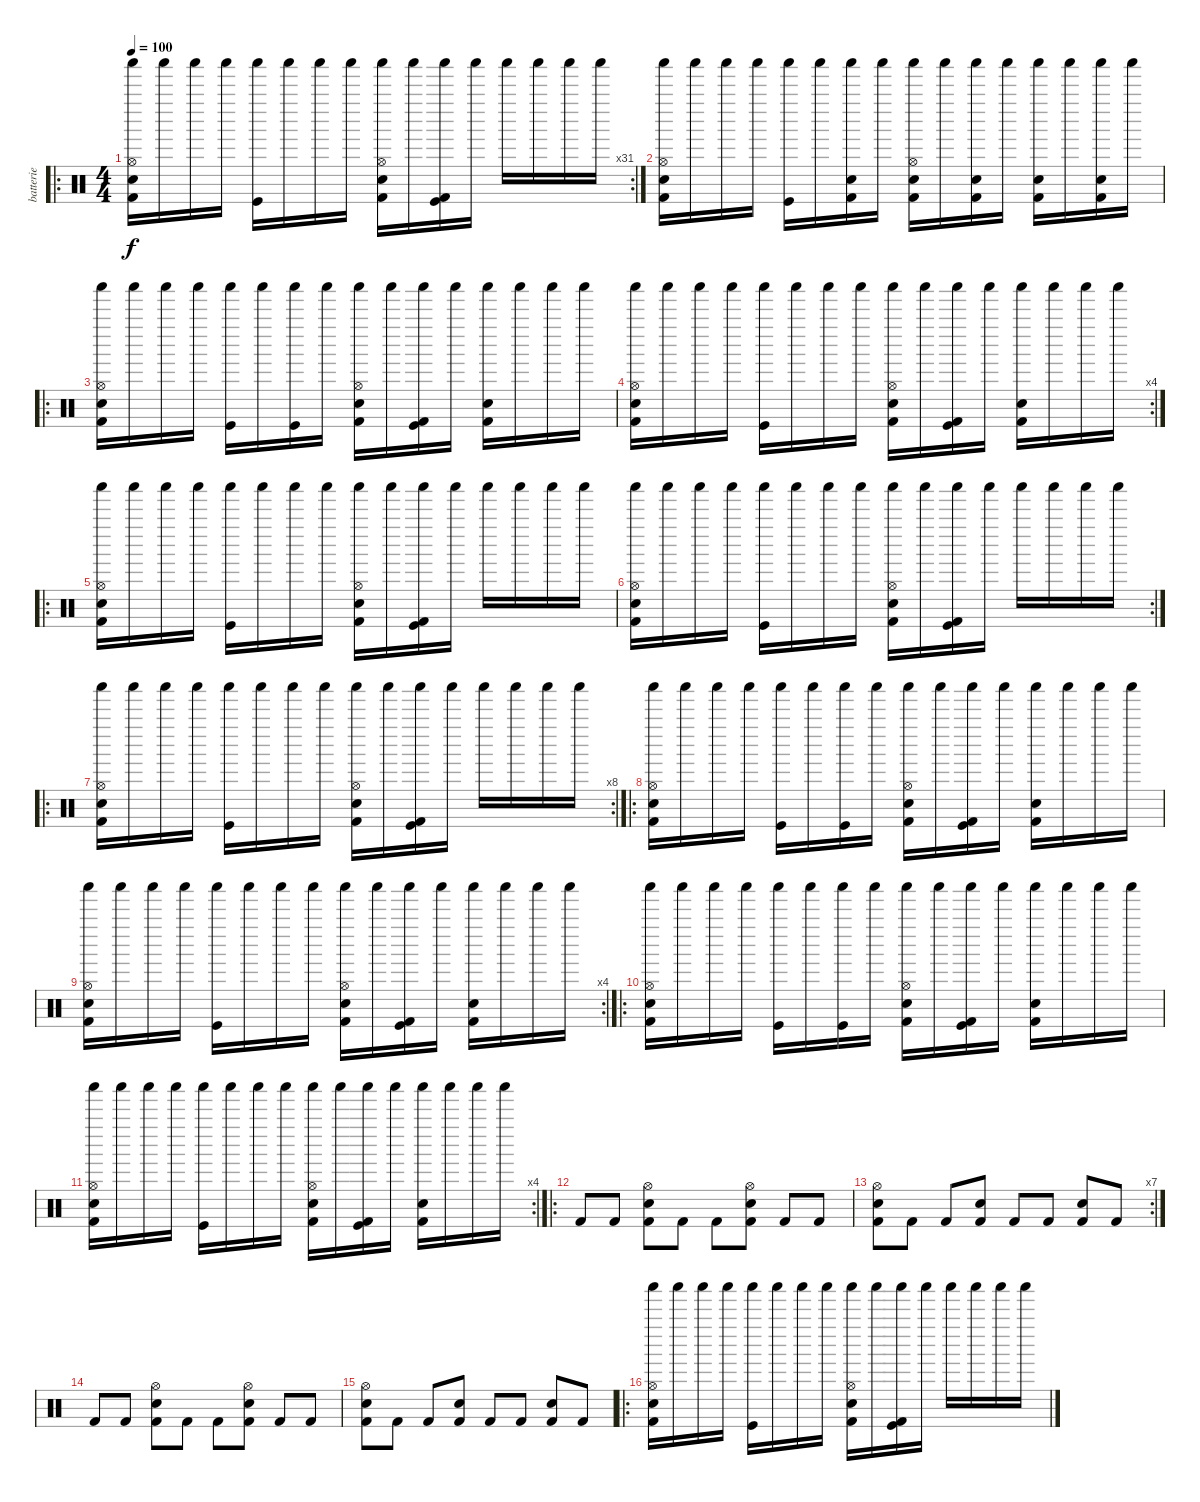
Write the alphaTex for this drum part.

\track ("batterie" "batterie") {instrument percussion}
\staff {score}
\articulation defaults
\ro
\rc 31
\ts (4 4)
\tempo 100
\clef neutral
\ks c
("Shaker (hit)" "Kick (hit) 2" "Electric Snare (hit)" "Hi-Hat (open)").16{dy f} "Shaker (hit)".16 "Shaker (hit)".16 "Shaker (hit)".16 ("Shaker (hit)" "Kick (hit)").16 "Shaker (hit)".16 "Shaker (hit)".16 "Shaker (hit)".16 ("Shaker (hit)" "Kick (hit) 2" "Electric Snare (hit)" "Hi-Hat (open)").16 "Shaker (hit)".16 ("Shaker (hit)" "Kick (hit)" "Kick (hit) 2").16 "Shaker (hit)".16 "Shaker (hit)".16 "Shaker (hit)".16 "Shaker (hit)".16 "Shaker (hit)".16 |
("Shaker (hit)" "Kick (hit) 2" "Electric Snare (hit)" "Hi-Hat (open)").16 "Shaker (hit)".16 "Shaker (hit)".16 "Shaker (hit)".16 ("Shaker (hit)" "Kick (hit)").16 "Shaker (hit)".16 ("Shaker (hit)" "Electric Snare (hit)" "Kick (hit) 2").16 "Shaker (hit)".16 ("Shaker (hit)" "Kick (hit) 2" "Electric Snare (hit)" "Hi-Hat (open)").16 "Shaker (hit)".16 ("Shaker (hit)" "Electric Snare (hit)" "Kick (hit) 2").16 "Shaker (hit)".16 ("Shaker (hit)" "Electric Snare (hit)" "Kick (hit) 2").16 "Shaker (hit)".16 ("Shaker (hit)" "Electric Snare (hit)" "Kick (hit) 2").16 "Shaker (hit)".16 |
\ro
("Shaker (hit)" "Kick (hit) 2" "Electric Snare (hit)" "Hi-Hat (open)").16 "Shaker (hit)".16 "Shaker (hit)".16 "Shaker (hit)".16 ("Shaker (hit)" "Kick (hit)").16 "Shaker (hit)".16 ("Shaker (hit)" "Kick (hit)").16 "Shaker (hit)".16 ("Shaker (hit)" "Kick (hit) 2" "Electric Snare (hit)" "Hi-Hat (open)").16 "Shaker (hit)".16 ("Shaker (hit)" "Kick (hit)" "Kick (hit) 2").16 "Shaker (hit)".16 ("Shaker (hit)" "Kick (hit) 2" "Electric Snare (hit)").16 "Shaker (hit)".16 "Shaker (hit)".16 "Shaker (hit)".16 |
\rc 4
("Shaker (hit)" "Kick (hit) 2" "Electric Snare (hit)" "Hi-Hat (open)").16 "Shaker (hit)".16 "Shaker (hit)".16 "Shaker (hit)".16 ("Shaker (hit)" "Kick (hit)").16 "Shaker (hit)".16 "Shaker (hit)".16 "Shaker (hit)".16 ("Shaker (hit)" "Kick (hit) 2" "Electric Snare (hit)" "Hi-Hat (open)").16 "Shaker (hit)".16 ("Shaker (hit)" "Kick (hit)" "Kick (hit) 2").16 "Shaker (hit)".16 ("Shaker (hit)" "Kick (hit) 2" "Electric Snare (hit)").16 "Shaker (hit)".16 "Shaker (hit)".16 "Shaker (hit)".16 |
\ro
("Shaker (hit)" "Kick (hit) 2" "Electric Snare (hit)" "Hi-Hat (open)").16 "Shaker (hit)".16 "Shaker (hit)".16 "Shaker (hit)".16 ("Shaker (hit)" "Kick (hit)").16 "Shaker (hit)".16 "Shaker (hit)".16 "Shaker (hit)".16 ("Shaker (hit)" "Kick (hit) 2" "Electric Snare (hit)" "Hi-Hat (open)").16 "Shaker (hit)".16 ("Shaker (hit)" "Kick (hit)" "Kick (hit) 2").16 "Shaker (hit)".16 "Shaker (hit)".16 "Shaker (hit)".16 "Shaker (hit)".16 "Shaker (hit)".16 |
\rc 2
("Shaker (hit)" "Kick (hit) 2" "Electric Snare (hit)" "Hi-Hat (open)").16 "Shaker (hit)".16 "Shaker (hit)".16 "Shaker (hit)".16 ("Shaker (hit)" "Kick (hit)").16 "Shaker (hit)".16 "Shaker (hit)".16 "Shaker (hit)".16 ("Shaker (hit)" "Kick (hit) 2" "Electric Snare (hit)" "Hi-Hat (open)").16 "Shaker (hit)".16 ("Shaker (hit)" "Kick (hit)" "Kick (hit) 2").16 "Shaker (hit)".16 "Shaker (hit)".16 "Shaker (hit)".16 "Shaker (hit)".16 "Shaker (hit)".16 |
\ro
\rc 8
("Shaker (hit)" "Kick (hit) 2" "Electric Snare (hit)" "Hi-Hat (open)").16 "Shaker (hit)".16 "Shaker (hit)".16 "Shaker (hit)".16 ("Shaker (hit)" "Kick (hit)").16 "Shaker (hit)".16 "Shaker (hit)".16 "Shaker (hit)".16 ("Shaker (hit)" "Kick (hit) 2" "Electric Snare (hit)" "Hi-Hat (open)").16 "Shaker (hit)".16 ("Shaker (hit)" "Kick (hit)" "Kick (hit) 2").16 "Shaker (hit)".16 "Shaker (hit)".16 "Shaker (hit)".16 "Shaker (hit)".16 "Shaker (hit)".16 |
\ro
("Shaker (hit)" "Kick (hit) 2" "Electric Snare (hit)" "Hi-Hat (open)").16 "Shaker (hit)".16 "Shaker (hit)".16 "Shaker (hit)".16 ("Shaker (hit)" "Kick (hit)").16 "Shaker (hit)".16 ("Shaker (hit)" "Kick (hit)").16 "Shaker (hit)".16 ("Shaker (hit)" "Kick (hit) 2" "Electric Snare (hit)" "Hi-Hat (open)").16 "Shaker (hit)".16 ("Shaker (hit)" "Kick (hit)" "Kick (hit) 2").16 "Shaker (hit)".16 ("Shaker (hit)" "Kick (hit) 2" "Electric Snare (hit)").16 "Shaker (hit)".16 "Shaker (hit)".16 "Shaker (hit)".16 |
\rc 4
("Shaker (hit)" "Kick (hit) 2" "Electric Snare (hit)" "Hi-Hat (open)").16 "Shaker (hit)".16 "Shaker (hit)".16 "Shaker (hit)".16 ("Shaker (hit)" "Kick (hit)").16 "Shaker (hit)".16 "Shaker (hit)".16 "Shaker (hit)".16 ("Shaker (hit)" "Kick (hit) 2" "Electric Snare (hit)" "Hi-Hat (open)").16 "Shaker (hit)".16 ("Shaker (hit)" "Kick (hit)" "Kick (hit) 2").16 "Shaker (hit)".16 ("Shaker (hit)" "Kick (hit) 2" "Electric Snare (hit)").16 "Shaker (hit)".16 "Shaker (hit)".16 "Shaker (hit)".16 |
\ro
("Shaker (hit)" "Kick (hit) 2" "Electric Snare (hit)" "Hi-Hat (open)").16 "Shaker (hit)".16 "Shaker (hit)".16 "Shaker (hit)".16 ("Shaker (hit)" "Kick (hit)").16 "Shaker (hit)".16 ("Shaker (hit)" "Kick (hit)").16 "Shaker (hit)".16 ("Shaker (hit)" "Kick (hit) 2" "Electric Snare (hit)" "Hi-Hat (open)").16 "Shaker (hit)".16 ("Shaker (hit)" "Kick (hit)" "Kick (hit) 2").16 "Shaker (hit)".16 ("Shaker (hit)" "Kick (hit) 2" "Electric Snare (hit)").16 "Shaker (hit)".16 "Shaker (hit)".16 "Shaker (hit)".16 |
\rc 4
("Shaker (hit)" "Kick (hit) 2" "Electric Snare (hit)" "Hi-Hat (open)").16 "Shaker (hit)".16 "Shaker (hit)".16 "Shaker (hit)".16 ("Shaker (hit)" "Kick (hit)").16 "Shaker (hit)".16 "Shaker (hit)".16 "Shaker (hit)".16 ("Shaker (hit)" "Kick (hit) 2" "Electric Snare (hit)" "Hi-Hat (open)").16 "Shaker (hit)".16 ("Shaker (hit)" "Kick (hit)" "Kick (hit) 2").16 "Shaker (hit)".16 ("Shaker (hit)" "Kick (hit) 2" "Electric Snare (hit)").16 "Shaker (hit)".16 "Shaker (hit)".16 "Shaker (hit)".16 |
\ro "Kick (hit) 2".8 "Kick (hit) 2".8
("Hi-Hat (open)" "Kick (hit) 2" "Electric Snare (hit)").8 "Kick (hit) 2".8 "Kick (hit) 2".8 ("Hi-Hat (open)" "Kick (hit) 2" "Electric Snare (hit)").8 "Kick (hit) 2".8 "Kick (hit) 2".8 |
\rc 7
("Hi-Hat (open)" "Kick (hit) 2" "Electric Snare (hit)").8 "Kick (hit) 2".8 "Kick (hit) 2".8 ("Kick (hit) 2" "Electric Snare (hit)").8 "Kick (hit) 2".8 "Kick (hit) 2".8 ("Kick (hit) 2" "Electric Snare (hit)").8 "Kick (hit) 2".8 |
"Kick (hit) 2".8 "Kick (hit) 2".8 ("Hi-Hat (open)" "Kick (hit) 2" "Electric Snare (hit)").8 "Kick (hit) 2".8 "Kick (hit) 2".8 ("Hi-Hat (open)" "Kick (hit) 2" "Electric Snare (hit)").8 "Kick (hit) 2".8 "Kick (hit) 2".8 |
("Hi-Hat (open)" "Kick (hit) 2" "Electric Snare (hit)").8 "Kick (hit) 2".8 "Kick (hit) 2".8 ("Kick (hit) 2" "Electric Snare (hit)").8 "Kick (hit) 2".8 "Kick (hit) 2".8 ("Kick (hit) 2" "Electric Snare (hit)").8 "Kick (hit) 2".8 |
\ro
("Shaker (hit)" "Kick (hit) 2" "Electric Snare (hit)" "Hi-Hat (open)").16 "Shaker (hit)".16 "Shaker (hit)".16 "Shaker (hit)".16 ("Shaker (hit)" "Kick (hit)").16 "Shaker (hit)".16 "Shaker (hit)".16 "Shaker (hit)".16 ("Shaker (hit)" "Kick (hit) 2" "Electric Snare (hit)" "Hi-Hat (open)").16 "Shaker (hit)".16 ("Shaker (hit)" "Kick (hit)" "Kick (hit) 2").16 "Shaker (hit)".16 "Shaker (hit)".16 "Shaker (hit)".16 "Shaker (hit)".16 "Shaker (hit)".16
